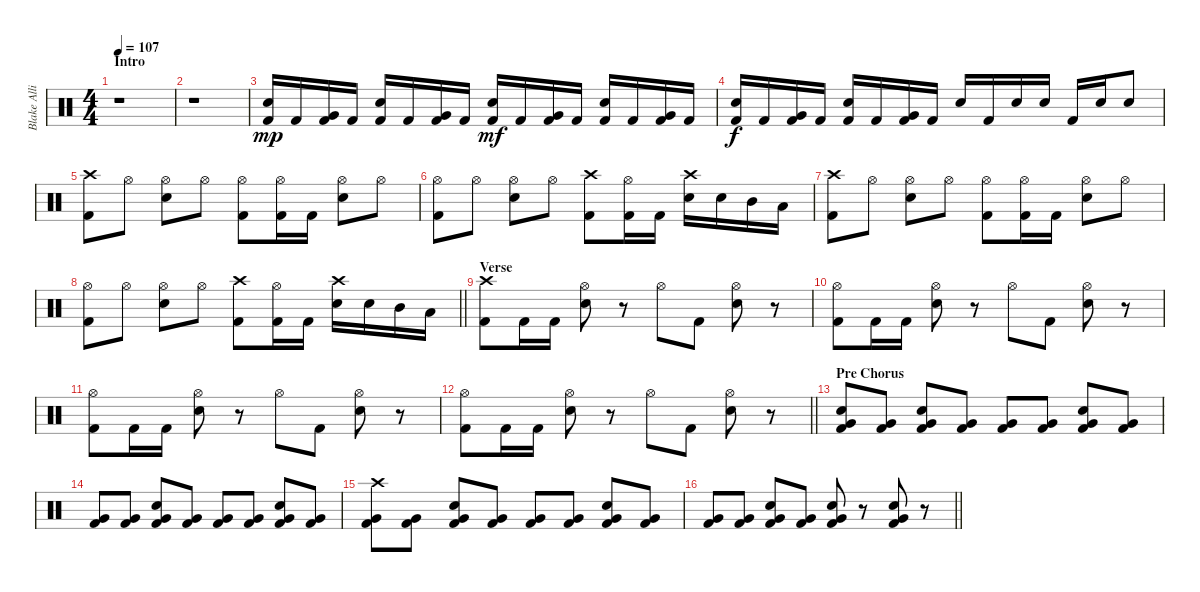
\track ("Blake Allison (Drums)" "Blake Alli") {instrument percussion}
\staff {score}
\articulation defaults
\ts (4 4)
\section ("" "Intro")
\tempo 107
\clef neutral
\ks c
r.1{dy mp} |
r.1 |
("Electric Snare (hit)" "Kick (hit) 2").16 "Kick (hit) 2".16 ("Very Low Tom (hit)" "Kick (hit) 2").16 "Kick (hit) 2".16 ("Electric Snare (hit)" "Kick (hit) 2").16 "Kick (hit) 2".16 ("Very Low Tom (hit)" "Kick (hit) 2").16 "Kick (hit) 2".16 ("Electric Snare (hit)" "Kick (hit) 2").16{dy mf} "Kick (hit) 2".16 ("Very Low Tom (hit)" "Kick (hit) 2").16 "Kick (hit) 2".16 ("Electric Snare (hit)" "Kick (hit) 2").16 "Kick (hit) 2".16 ("Very Low Tom (hit)" "Kick (hit) 2").16 "Kick (hit) 2".16 |
("Electric Snare (hit)" "Kick (hit) 2").16{dy f} "Kick (hit) 2".16 ("Very Low Tom (hit)" "Kick (hit) 2").16 "Kick (hit) 2".16 ("Electric Snare (hit)" "Kick (hit) 2").16 "Kick (hit) 2".16 ("Very Low Tom (hit)" "Kick (hit) 2").16 "Kick (hit) 2".16 "Electric Snare (hit)".16 "Kick (hit) 2".16 "Electric Snare (hit)".16 "Electric Snare (hit)".16 "Kick (hit) 2".16 "Electric Snare (hit)".16 "Electric Snare (hit)".8 |
("Crash high (hit)" "Kick (hit) 2").8 "Hi-Hat (open)".8 ("Hi-Hat (open)" "Electric Snare (hit)").8 "Hi-Hat (open)".8 ("Hi-Hat (open)" "Kick (hit) 2").8 ("Hi-Hat (open)" "Kick (hit) 2").16 "Kick (hit) 2".16 ("Hi-Hat (open)" "Electric Snare (hit)").8 "Hi-Hat (open)".8 |
("Hi-Hat (open)" "Kick (hit) 2").8 "Hi-Hat (open)".8 ("Hi-Hat (open)" "Electric Snare (hit)").8 "Hi-Hat (open)".8 ("Crash high (hit)" "Kick (hit) 2").8 ("Hi-Hat (open)" "Kick (hit) 2").16 "Kick (hit) 2".16 ("Crash high (hit)" "Electric Snare (hit)").16 "Electric Snare (hit)".16 "Mid Tom (hit)".16 "Low Tom (hit)".16 |
("Crash high (hit)" "Kick (hit) 2").8 "Hi-Hat (open)".8 ("Hi-Hat (open)" "Electric Snare (hit)").8 "Hi-Hat (open)".8 ("Hi-Hat (open)" "Kick (hit) 2").8 ("Hi-Hat (open)" "Kick (hit) 2").16 "Kick (hit) 2".16 ("Hi-Hat (open)" "Electric Snare (hit)").8 "Hi-Hat (open)".8 |
\barLineRight lightlight
("Hi-Hat (open)" "Kick (hit) 2").8 "Hi-Hat (open)".8 ("Hi-Hat (open)" "Electric Snare (hit)").8 "Hi-Hat (open)".8 ("Crash high (hit)" "Kick (hit) 2").8 ("Hi-Hat (open)" "Kick (hit) 2").16 "Kick (hit) 2".16 ("Crash high (hit)" "Electric Snare (hit)").16 "Electric Snare (hit)".16 "Mid Tom (hit)".16 "Low Tom (hit)".16 |
\section ("" "Verse")
("Crash high (hit)" "Kick (hit) 2").8 "Kick (hit) 2".16 "Kick (hit) 2".16 ("Hi-Hat (open)" "Electric Snare (hit)").8 r.8 "Hi-Hat (open)".8 "Kick (hit) 2".8 ("Hi-Hat (open)" "Electric Snare (hit)").8 r.8 |
("Hi-Hat (open)" "Kick (hit) 2").8 "Kick (hit) 2".16 "Kick (hit) 2".16 ("Hi-Hat (open)" "Electric Snare (hit)").8 r.8 "Hi-Hat (open)".8 "Kick (hit) 2".8 ("Hi-Hat (open)" "Electric Snare (hit)").8 r.8 |
("Hi-Hat (open)" "Kick (hit) 2").8 "Kick (hit) 2".16 "Kick (hit) 2".16 ("Hi-Hat (open)" "Electric Snare (hit)").8 r.8 "Hi-Hat (open)".8 "Kick (hit) 2".8 ("Hi-Hat (open)" "Electric Snare (hit)").8 r.8 |
\barLineRight lightlight
("Hi-Hat (open)" "Kick (hit) 2").8 "Kick (hit) 2".16 "Kick (hit) 2".16 ("Hi-Hat (open)" "Electric Snare (hit)").8 r.8 "Hi-Hat (open)".8 "Kick (hit) 2".8 ("Hi-Hat (open)" "Electric Snare (hit)").8 r.8 |
\section ("" "Pre Chorus")
("Electric Snare (hit)" "Very Low Tom (hit)" "Kick (hit) 2").8 ("Very Low Tom (hit)" "Kick (hit) 2").8 ("Electric Snare (hit)" "Very Low Tom (hit)" "Kick (hit) 2").8 ("Very Low Tom (hit)" "Kick (hit) 2").8 ("Very Low Tom (hit)" "Kick (hit) 2").8 ("Very Low Tom (hit)" "Kick (hit) 2").8 ("Electric Snare (hit)" "Very Low Tom (hit)" "Kick (hit) 2").8 ("Very Low Tom (hit)" "Kick (hit) 2").8 |
("Very Low Tom (hit)" "Kick (hit) 2").8 ("Very Low Tom (hit)" "Kick (hit) 2").8 ("Electric Snare (hit)" "Very Low Tom (hit)" "Kick (hit) 2").8 ("Very Low Tom (hit)" "Kick (hit) 2").8 ("Very Low Tom (hit)" "Kick (hit) 2").8 ("Very Low Tom (hit)" "Kick (hit) 2").8 ("Electric Snare (hit)" "Very Low Tom (hit)" "Kick (hit) 2").8 ("Very Low Tom (hit)" "Kick (hit) 2").8 |
("Crash high (hit)" "Very Low Tom (hit)" "Kick (hit) 2").8 ("Very Low Tom (hit)" "Kick (hit) 2").8 ("Electric Snare (hit)" "Very Low Tom (hit)" "Kick (hit) 2").8 ("Very Low Tom (hit)" "Kick (hit) 2").8 ("Very Low Tom (hit)" "Kick (hit) 2").8 ("Very Low Tom (hit)" "Kick (hit) 2").8 ("Electric Snare (hit)" "Very Low Tom (hit)" "Kick (hit) 2").8 ("Very Low Tom (hit)" "Kick (hit) 2").8 |
\barLineRight lightlight
("Very Low Tom (hit)" "Kick (hit) 2").8 ("Very Low Tom (hit)" "Kick (hit) 2").8 ("Electric Snare (hit)" "Very Low Tom (hit)" "Kick (hit) 2").8 ("Very Low Tom (hit)" "Kick (hit) 2").8 ("Electric Snare (hit)" "Very Low Tom (hit)" "Kick (hit) 2").8 r.8 ("Electric Snare (hit)" "Very Low Tom (hit)" "Kick (hit) 2").8 r.8
